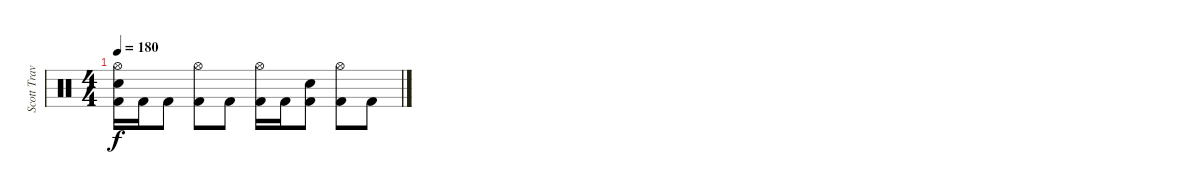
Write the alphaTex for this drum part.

\track ("Scott Travis" "Scott Trav") {instrument percussion}
\staff {score}
\articulation defaults
\ts (4 4)
\tempo 180
\clef neutral
\ks c
("Hi-Hat (open)" "Snare (hit) 2" "Kick (hit) 2").16{dy f} "Kick (hit) 2".16 "Kick (hit) 2".8 ("Hi-Hat (open)" "Kick (hit) 2").8 "Kick (hit) 2".8 ("Hi-Hat (open)" "Kick (hit) 2").16 "Kick (hit) 2".16 ("Snare (hit) 2" "Kick (hit) 2").8 ("Hi-Hat (open)" "Kick (hit) 2").8 "Kick (hit) 2".8
